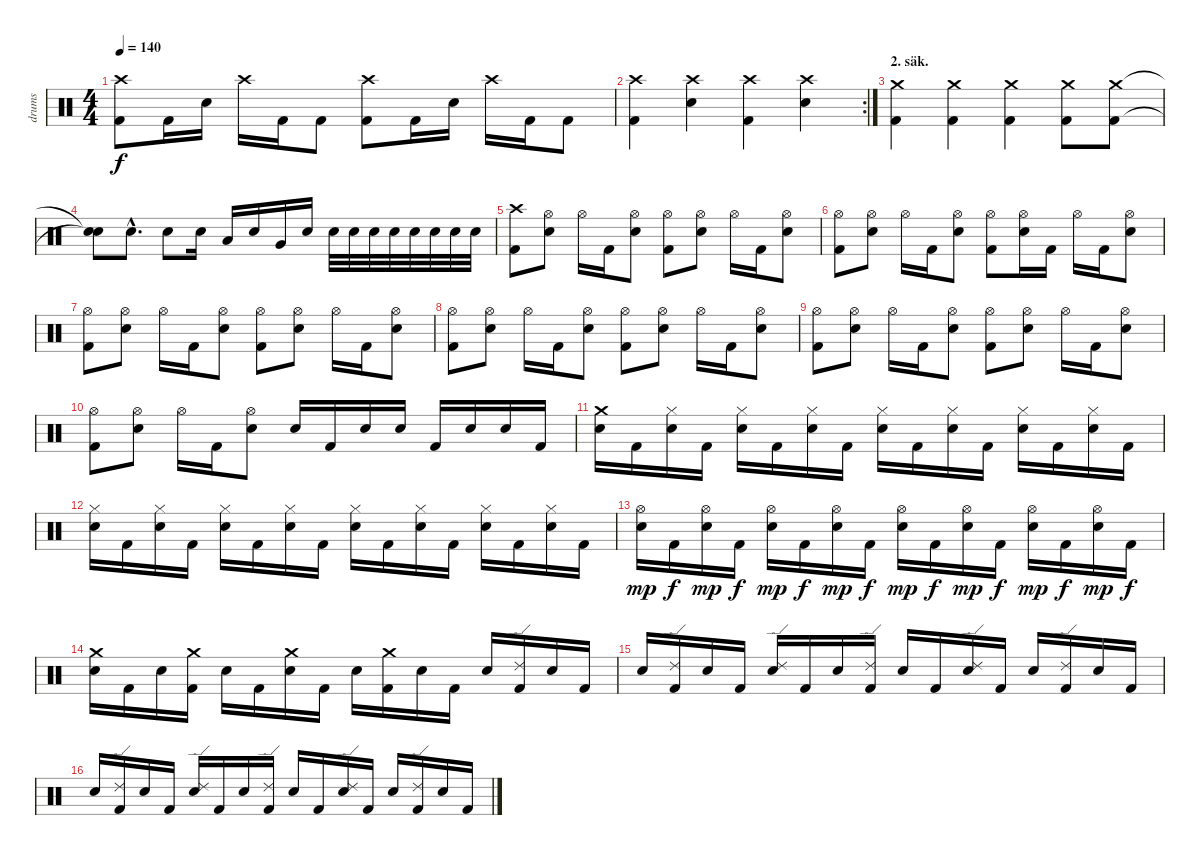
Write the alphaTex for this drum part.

\track ("drums" "drums") {instrument percussion}
\staff {score}
\articulation defaults
\ts (4 4)
\tempo 140
\clef neutral
\ks c
("Kick (hit) 2" "Crash high (hit)").8{dy f} "Kick (hit) 2".16 "Snare (hit) 2".16 "Crash high (hit)".16 "Kick (hit) 2".16 "Kick (hit) 2".8 ("Kick (hit) 2" "Crash high (hit)").8 "Kick (hit) 2".16 "Snare (hit) 2".16 "Crash high (hit)".16 "Kick (hit) 2".16 "Kick (hit) 2".8 |
\rc 2
("Kick (hit) 2" "Crash high (hit)").4 ("Crash high (hit)" "Snare (hit) 2").4 ("Kick (hit) 2" "Crash high (hit)").4 ("Crash high (hit)" "Snare (hit) 2").4 |
\section ("" "2. säk.")
("Kick (hit) 2" "Crash medium (hit)").4 ("Kick (hit) 2" "Crash medium (hit)").4 ("Kick (hit) 2" "Crash medium (hit)").4 ("Kick (hit) 2" "Crash medium (hit)").8 ("Kick (hit) 2" "Crash medium (hit)").8 |
("Snare (hit)"{t} "Snare (hit)"{t}).8 "Snare (hit) 2"{hac}.8{d} "Snare (hit) 2".8 "Snare (hit) 2".16 "Low Tom (hit)".16 "Snare (hit) 2".16 "Very Low Tom (hit)".16 "Snare (hit) 2".16 "Snare (hit) 2".32 "Snare (hit) 2".32 "Snare (hit) 2".32 "Snare (hit) 2".32 "Snare (hit) 2".32 "Snare (hit) 2".32 "Snare (hit) 2".32 "Snare (hit) 2".32 |
("Kick (hit) 2" "Crash high (hit)").8 ("Hi-Hat (open)" "Snare (hit) 2").8 "Hi-Hat (open)".16 "Kick (hit) 2".16 ("Hi-Hat (open)" "Snare (hit) 2").8 ("Kick (hit) 2" "Hi-Hat (open)").8 ("Hi-Hat (open)" "Snare (hit) 2").8 "Hi-Hat (open)".16 "Kick (hit) 2".16 ("Hi-Hat (open)" "Snare (hit) 2").8 |
("Kick (hit) 2" "Hi-Hat (open)").8 ("Hi-Hat (open)" "Snare (hit) 2").8 "Hi-Hat (open)".16 "Kick (hit) 2".16 ("Hi-Hat (open)" "Snare (hit) 2").8 ("Kick (hit) 2" "Hi-Hat (open)").8 ("Hi-Hat (open)" "Snare (hit) 2").16 "Kick (hit) 2".16 "Hi-Hat (open)".16 "Kick (hit) 2".16 ("Hi-Hat (open)" "Snare (hit) 2").8 |
("Kick (hit) 2" "Hi-Hat (open)").8 ("Hi-Hat (open)" "Snare (hit) 2").8 "Hi-Hat (open)".16 "Kick (hit) 2".16 ("Hi-Hat (open)" "Snare (hit) 2").8 ("Kick (hit) 2" "Hi-Hat (open)").8 ("Hi-Hat (open)" "Snare (hit) 2").8 "Hi-Hat (open)".16 "Kick (hit) 2".16 ("Hi-Hat (open)" "Snare (hit) 2").8 |
("Kick (hit) 2" "Hi-Hat (open)").8 ("Hi-Hat (open)" "Snare (hit) 2").8 "Hi-Hat (open)".16 "Kick (hit) 2".16 ("Hi-Hat (open)" "Snare (hit) 2").8 ("Kick (hit) 2" "Hi-Hat (open)").8 ("Hi-Hat (open)" "Snare (hit) 2").8 "Hi-Hat (open)".16 "Kick (hit) 2".16 ("Hi-Hat (open)" "Snare (hit) 2").8 |
("Kick (hit) 2" "Hi-Hat (open)").8 ("Hi-Hat (open)" "Snare (hit) 2").8 "Hi-Hat (open)".16 "Kick (hit) 2".16 ("Hi-Hat (open)" "Snare (hit) 2").8 ("Kick (hit) 2" "Hi-Hat (open)").8 ("Hi-Hat (open)" "Snare (hit) 2").8 "Hi-Hat (open)".16 "Kick (hit) 2".16 ("Hi-Hat (open)" "Snare (hit) 2").8 |
("Kick (hit) 2" "Hi-Hat (open)").8 ("Hi-Hat (open)" "Snare (hit) 2").8 "Hi-Hat (open)".16 "Kick (hit) 2".16 ("Hi-Hat (open)" "Snare (hit) 2").8 "Snare (hit) 2".16 "Kick (hit) 2".16 "Snare (hit) 2".16 "Snare (hit) 2".16 "Kick (hit) 2".16 "Snare (hit) 2".16 "Snare (hit) 2".16 "Kick (hit) 2".16 |
("Crash medium (hit)" "Snare (hit) 2").16 "Kick (hit) 2".16 ("Hi-Hat (closed)" "Snare (hit) 2").16 "Kick (hit) 2".16 ("Hi-Hat (closed)" "Snare (hit) 2").16 "Kick (hit) 2".16 ("Hi-Hat (closed)" "Snare (hit) 2").16 "Kick (hit) 2".16 ("Hi-Hat (closed)" "Snare (hit) 2").16 "Kick (hit) 2".16 ("Hi-Hat (closed)" "Snare (hit) 2").16 "Kick (hit) 2".16 ("Hi-Hat (closed)" "Snare (hit) 2").16 "Kick (hit) 2".16 ("Hi-Hat (closed)" "Snare (hit) 2").16 "Kick (hit) 2".16 |
("Hi-Hat (closed)" "Snare (hit) 2").16 "Kick (hit) 2".16 ("Hi-Hat (closed)" "Snare (hit) 2").16 "Kick (hit) 2".16 ("Hi-Hat (closed)" "Snare (hit) 2").16 "Kick (hit) 2".16 ("Hi-Hat (closed)" "Snare (hit) 2").16 "Kick (hit) 2".16 ("Hi-Hat (closed)" "Snare (hit) 2").16 "Kick (hit) 2".16 ("Hi-Hat (closed)" "Snare (hit) 2").16 "Kick (hit) 2".16 ("Hi-Hat (closed)" "Snare (hit) 2").16 "Kick (hit) 2".16 ("Hi-Hat (closed)" "Snare (hit) 2").16 "Kick (hit) 2".16 |
("Hi-Hat (open)" "Snare (hit) 2").16{dy mp} "Kick (hit) 2".16{dy f} ("Hi-Hat (open)" "Snare (hit) 2").16{dy mp} "Kick (hit) 2".16{dy f} ("Hi-Hat (open)" "Snare (hit) 2").16{dy mp} "Kick (hit) 2".16{dy f} ("Hi-Hat (open)" "Snare (hit) 2").16{dy mp} "Kick (hit) 2".16{dy f} ("Hi-Hat (open)" "Snare (hit) 2").16{dy mp} "Kick (hit) 2".16{dy f} ("Hi-Hat (open)" "Snare (hit) 2").16{dy mp} "Kick (hit) 2".16{dy f} ("Hi-Hat (open)" "Snare (hit) 2").16{dy mp} "Kick (hit) 2".16{dy f} ("Hi-Hat (open)" "Snare (hit) 2").16{dy mp} "Kick (hit) 2".16{dy f} |
("Crash medium (hit)" "Snare (hit) 2").16 "Kick (hit) 2".16 "Snare (hit) 2".16 ("Kick (hit) 2" "Crash medium (hit)").16 "Snare (hit) 2".16 "Kick (hit) 2".16 ("Crash medium (hit)" "Snare (hit) 2").16 "Kick (hit) 2".16 "Snare (hit) 2".16 ("Kick (hit) 2" "Crash medium (hit)").16 "Snare (hit) 2".16 "Kick (hit) 2".16 "Snare (hit) 2".16 ("Kick (hit) 2" "Ride (edge) 2").16 "Snare (hit) 2".16 "Kick (hit) 2".16 |
"Snare (hit) 2".16 ("Kick (hit) 2" "Ride (edge) 2").16 "Snare (hit) 2".16 "Kick (hit) 2".16 ("Ride (edge) 2" "Snare (hit) 2").16 "Kick (hit) 2".16 "Snare (hit) 2".16 ("Kick (hit) 2" "Ride (edge) 2").16 "Snare (hit) 2".16 "Kick (hit) 2".16 ("Ride (edge) 2" "Snare (hit) 2").16 "Kick (hit) 2".16 "Snare (hit) 2".16 ("Kick (hit) 2" "Ride (edge) 2").16 "Snare (hit) 2".16 "Kick (hit) 2".16 |
"Snare (hit) 2".16 ("Kick (hit) 2" "Ride (edge) 2").16 "Snare (hit) 2".16 "Kick (hit) 2".16 ("Ride (edge) 2" "Snare (hit) 2").16 "Kick (hit) 2".16 "Snare (hit) 2".16 ("Kick (hit) 2" "Ride (edge) 2").16 "Snare (hit) 2".16 "Kick (hit) 2".16 ("Ride (edge) 2" "Snare (hit) 2").16 "Kick (hit) 2".16 "Snare (hit) 2".16 ("Kick (hit) 2" "Ride (edge) 2").16 "Snare (hit) 2".16 "Kick (hit) 2".16
